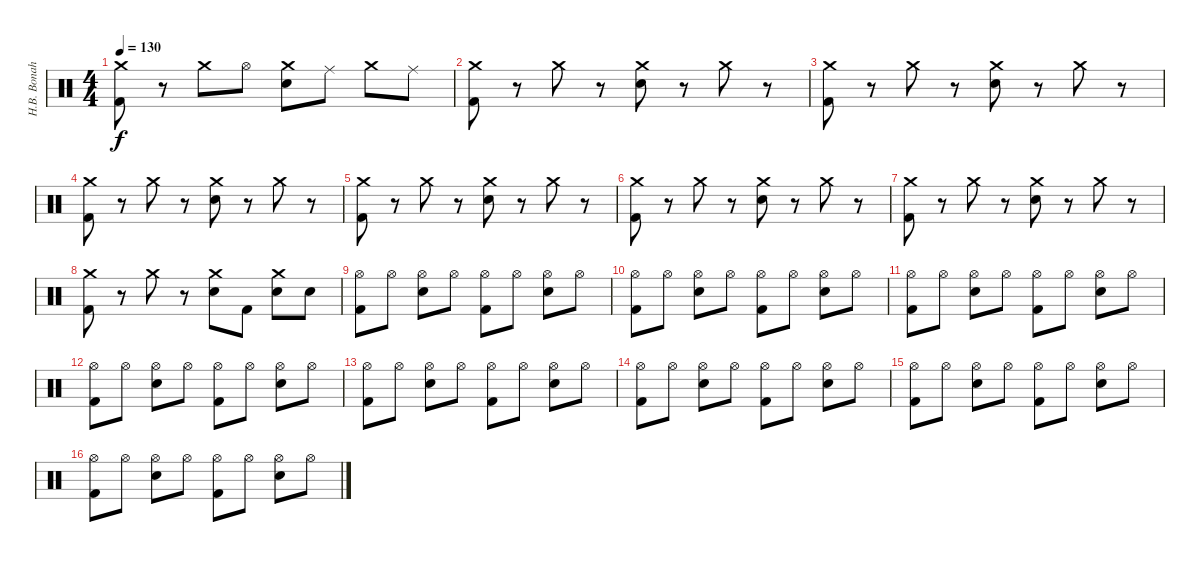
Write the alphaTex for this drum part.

\track ("H.B. Bonah" "H.B. Bonah") {instrument percussion}
\staff {score}
\articulation defaults
\ts (4 4)
\tempo 130
\clef neutral
\ks c
("Crash medium (hit)" "Kick (hit) 2").8{dy f} r.8 "Crash medium (hit)".8 "Hi-Hat (open)".8 ("Crash medium (hit)" "Electric Snare (hit)").8 "Ride (middle)".8 "Crash medium (hit)".8 "Ride (middle)".8 |
("Crash medium (hit)" "Kick (hit) 2").8 r.8 "Crash medium (hit)".8 r.8 ("Crash medium (hit)" "Electric Snare (hit)").8 r.8 "Crash medium (hit)".8 r.8 |
("Crash medium (hit)" "Kick (hit) 2").8 r.8 "Crash medium (hit)".8 r.8 ("Crash medium (hit)" "Electric Snare (hit)").8 r.8 "Crash medium (hit)".8 r.8 |
("Crash medium (hit)" "Kick (hit) 2").8 r.8 "Crash medium (hit)".8 r.8 ("Crash medium (hit)" "Electric Snare (hit)").8 r.8 "Crash medium (hit)".8 r.8 |
("Crash medium (hit)" "Kick (hit) 2").8 r.8 "Crash medium (hit)".8 r.8 ("Crash medium (hit)" "Electric Snare (hit)").8 r.8 "Crash medium (hit)".8 r.8 |
("Crash medium (hit)" "Kick (hit) 2").8 r.8 "Crash medium (hit)".8 r.8 ("Crash medium (hit)" "Electric Snare (hit)").8 r.8 "Crash medium (hit)".8 r.8 |
("Crash medium (hit)" "Kick (hit) 2").8 r.8 "Crash medium (hit)".8 r.8 ("Crash medium (hit)" "Electric Snare (hit)").8 r.8 "Crash medium (hit)".8 r.8 |
("Crash medium (hit)" "Kick (hit) 2").8 r.8 "Crash medium (hit)".8 r.8 ("Crash medium (hit)" "Electric Snare (hit)").8 "Kick (hit) 2".8 ("Crash medium (hit)" "Electric Snare (hit)").8 "Electric Snare (hit)".8 |
("Hi-Hat (open)" "Kick (hit) 2").8 "Hi-Hat (open)".8 ("Hi-Hat (open)" "Electric Snare (hit)").8 "Hi-Hat (open)".8 ("Hi-Hat (open)" "Kick (hit) 2").8 "Hi-Hat (open)".8 ("Hi-Hat (open)" "Electric Snare (hit)").8 "Hi-Hat (open)".8 |
("Hi-Hat (open)" "Kick (hit) 2").8 "Hi-Hat (open)".8 ("Hi-Hat (open)" "Electric Snare (hit)").8 "Hi-Hat (open)".8 ("Hi-Hat (open)" "Kick (hit) 2").8 "Hi-Hat (open)".8 ("Hi-Hat (open)" "Electric Snare (hit)").8 "Hi-Hat (open)".8 |
("Hi-Hat (open)" "Kick (hit) 2").8 "Hi-Hat (open)".8 ("Hi-Hat (open)" "Electric Snare (hit)").8 "Hi-Hat (open)".8 ("Hi-Hat (open)" "Kick (hit) 2").8 "Hi-Hat (open)".8 ("Hi-Hat (open)" "Electric Snare (hit)").8 "Hi-Hat (open)".8 |
("Hi-Hat (open)" "Kick (hit) 2").8 "Hi-Hat (open)".8 ("Hi-Hat (open)" "Electric Snare (hit)").8 "Hi-Hat (open)".8 ("Hi-Hat (open)" "Kick (hit) 2").8 "Hi-Hat (open)".8 ("Hi-Hat (open)" "Electric Snare (hit)").8 "Hi-Hat (open)".8 |
("Hi-Hat (open)" "Kick (hit) 2").8 "Hi-Hat (open)".8 ("Hi-Hat (open)" "Electric Snare (hit)").8 "Hi-Hat (open)".8 ("Hi-Hat (open)" "Kick (hit) 2").8 "Hi-Hat (open)".8 ("Hi-Hat (open)" "Electric Snare (hit)").8 "Hi-Hat (open)".8 |
("Hi-Hat (open)" "Kick (hit) 2").8 "Hi-Hat (open)".8 ("Hi-Hat (open)" "Electric Snare (hit)").8 "Hi-Hat (open)".8 ("Hi-Hat (open)" "Kick (hit) 2").8 "Hi-Hat (open)".8 ("Hi-Hat (open)" "Electric Snare (hit)").8 "Hi-Hat (open)".8 |
("Hi-Hat (open)" "Kick (hit) 2").8 "Hi-Hat (open)".8 ("Hi-Hat (open)" "Electric Snare (hit)").8 "Hi-Hat (open)".8 ("Hi-Hat (open)" "Kick (hit) 2").8 "Hi-Hat (open)".8 ("Hi-Hat (open)" "Electric Snare (hit)").8 "Hi-Hat (open)".8 |
("Hi-Hat (open)" "Kick (hit) 2").8 "Hi-Hat (open)".8 ("Hi-Hat (open)" "Electric Snare (hit)").8 "Hi-Hat (open)".8 ("Hi-Hat (open)" "Kick (hit) 2").8 "Hi-Hat (open)".8 ("Hi-Hat (open)" "Electric Snare (hit)").8 "Hi-Hat (open)".8
